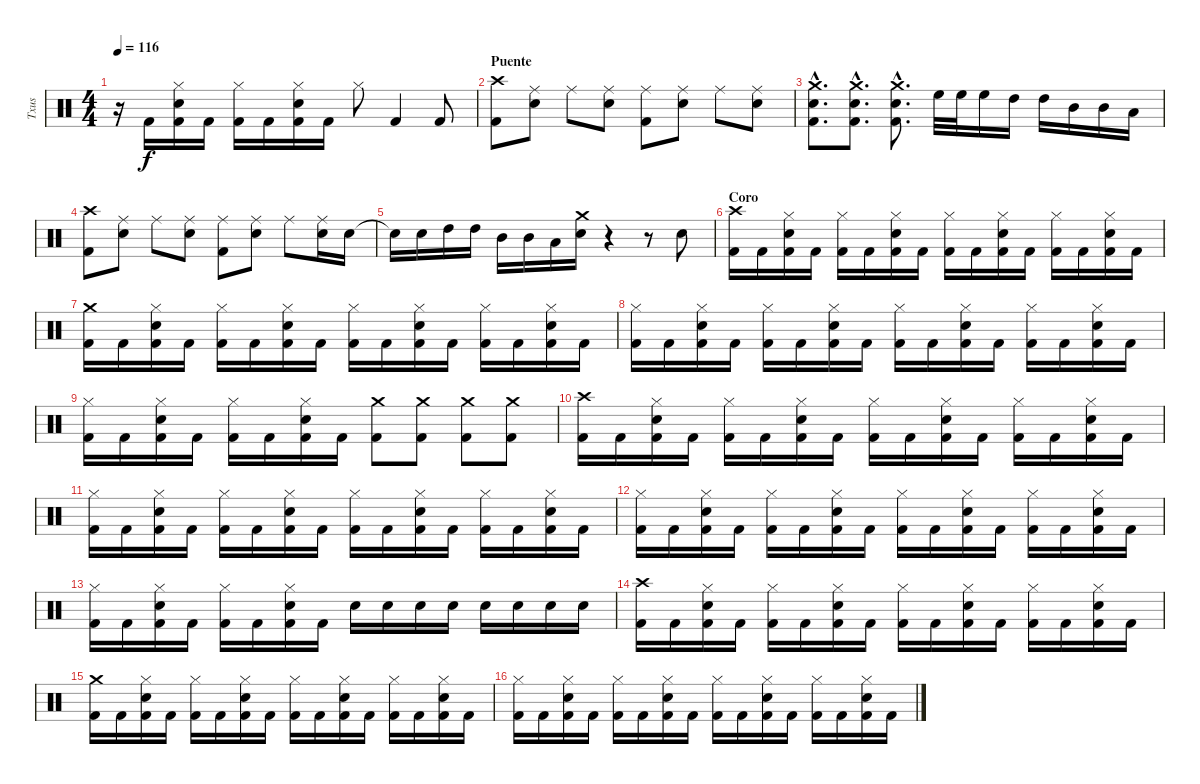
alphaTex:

\track ("Txus" "Txus") {instrument percussion}
\staff {score}
\articulation defaults
\ts (4 4)
\tempo 116
\clef neutral
\ks c
r.16{dy f} "Kick (hit) 2".16 ("Kick (hit) 2" "Electric Snare (hit)" "Hi-Hat (closed)").16 "Kick (hit) 2".16 ("Kick (hit) 2" "Hi-Hat (closed)").16 "Kick (hit) 2".16 ("Kick (hit) 2" "Electric Snare (hit)" "Hi-Hat (closed)").16 "Kick (hit) 2".16 "Hi-Hat (closed)".8 "Kick (hit) 2".4 "Kick (hit) 2".8 |
\section ("" "Puente")
("Kick (hit) 2" "Crash high (hit)").8 ("Electric Snare (hit)" "Ride (middle)").8 "Ride (middle)".8 ("Electric Snare (hit)" "Ride (middle)").8 ("Kick (hit) 2" "Ride (middle)").8 ("Electric Snare (hit)" "Ride (middle)").8 "Ride (middle)".8 ("Electric Snare (hit)" "Ride (middle)").8 |
("Kick (hit) 2"{hac} "Electric Snare (hit)"{hac} "Crash medium (hit)"{hac}).8{d} ("Kick (hit) 2"{hac} "Electric Snare (hit)"{hac} "Crash medium (hit)"{hac}).8{d} ("Kick (hit) 2"{hac} "Electric Snare (hit)"{hac} "Crash medium (hit)"{hac}).8{d} "High Floor Tom (hit)".32 "High Floor Tom (hit)".32 "High Floor Tom (hit)".16 "High Tom (hit)".16 "High Tom (hit)".16 "Mid Tom (hit)".16 "Mid Tom (hit)".16 "Low Tom (hit)".16 |
("Kick (hit) 2" "Crash high (hit)").8 ("Electric Snare (hit)" "Ride (middle)").8 "Ride (middle)".8 ("Electric Snare (hit)" "Ride (middle)").8 ("Kick (hit) 2" "Ride (middle)").8 ("Electric Snare (hit)" "Ride (middle)").8 "Ride (middle)".8 ("Electric Snare (hit)" "Ride (middle)").16 "Electric Snare (hit)".16 |
"Electric Snare (hit)"{t}.16 "Electric Snare (hit)".16 "High Tom (hit)".16 "High Tom (hit)".16 "Mid Tom (hit)".16 "Mid Tom (hit)".16 "Low Tom (hit)".16 ("Electric Snare (hit)" "Crash medium (hit)").16 r.4 r.8 "Electric Snare (hit)".8 |
\section ("" "Coro")
("Kick (hit) 2" "Crash high (hit)").16 "Kick (hit) 2".16 ("Kick (hit) 2" "Electric Snare (hit)" "Hi-Hat (closed)").16 "Kick (hit) 2".16 ("Kick (hit) 2" "Hi-Hat (closed)").16 "Kick (hit) 2".16 ("Kick (hit) 2" "Electric Snare (hit)" "Hi-Hat (closed)").16 "Kick (hit) 2".16 ("Kick (hit) 2" "Hi-Hat (closed)").16 "Kick (hit) 2".16 ("Kick (hit) 2" "Electric Snare (hit)" "Hi-Hat (closed)").16 "Kick (hit) 2".16 ("Kick (hit) 2" "Hi-Hat (closed)").16 "Kick (hit) 2".16 ("Kick (hit) 2" "Electric Snare (hit)" "Hi-Hat (closed)").16 "Kick (hit) 2".16 |
("Kick (hit) 2" "Crash medium (hit)").16 "Kick (hit) 2".16 ("Kick (hit) 2" "Electric Snare (hit)" "Hi-Hat (closed)").16 "Kick (hit) 2".16 ("Kick (hit) 2" "Hi-Hat (closed)").16 "Kick (hit) 2".16 ("Kick (hit) 2" "Electric Snare (hit)" "Hi-Hat (closed)").16 "Kick (hit) 2".16 ("Kick (hit) 2" "Hi-Hat (closed)").16 "Kick (hit) 2".16 ("Kick (hit) 2" "Electric Snare (hit)" "Hi-Hat (closed)").16 "Kick (hit) 2".16 ("Kick (hit) 2" "Hi-Hat (closed)").16 "Kick (hit) 2".16 ("Kick (hit) 2" "Electric Snare (hit)" "Hi-Hat (closed)").16 "Kick (hit) 2".16 |
("Kick (hit) 2" "Hi-Hat (closed)").16 "Kick (hit) 2".16 ("Kick (hit) 2" "Electric Snare (hit)" "Hi-Hat (closed)").16 "Kick (hit) 2".16 ("Kick (hit) 2" "Hi-Hat (closed)").16 "Kick (hit) 2".16 ("Kick (hit) 2" "Electric Snare (hit)" "Hi-Hat (closed)").16 "Kick (hit) 2".16 ("Kick (hit) 2" "Hi-Hat (closed)").16 "Kick (hit) 2".16 ("Kick (hit) 2" "Electric Snare (hit)" "Hi-Hat (closed)").16 "Kick (hit) 2".16 ("Kick (hit) 2" "Hi-Hat (closed)").16 "Kick (hit) 2".16 ("Kick (hit) 2" "Electric Snare (hit)" "Hi-Hat (closed)").16 "Kick (hit) 2".16 |
("Kick (hit) 2" "Hi-Hat (closed)").16 "Kick (hit) 2".16 ("Kick (hit) 2" "Electric Snare (hit)" "Hi-Hat (closed)").16 "Kick (hit) 2".16 ("Kick (hit) 2" "Hi-Hat (closed)").16 "Kick (hit) 2".16 ("Kick (hit) 2" "Electric Snare (hit)" "Hi-Hat (closed)").16 "Kick (hit) 2".16 ("Kick (hit) 2" "Crash medium (hit)").8 ("Kick (hit) 2" "Crash medium (hit)").8 ("Kick (hit) 2" "Crash medium (hit)").8 ("Kick (hit) 2" "Crash medium (hit)").8 |
("Kick (hit) 2" "Crash high (hit)").16 "Kick (hit) 2".16 ("Kick (hit) 2" "Electric Snare (hit)" "Hi-Hat (closed)").16 "Kick (hit) 2".16 ("Kick (hit) 2" "Hi-Hat (closed)").16 "Kick (hit) 2".16 ("Kick (hit) 2" "Electric Snare (hit)" "Hi-Hat (closed)").16 "Kick (hit) 2".16 ("Kick (hit) 2" "Hi-Hat (closed)").16 "Kick (hit) 2".16 ("Kick (hit) 2" "Electric Snare (hit)" "Hi-Hat (closed)").16 "Kick (hit) 2".16 ("Kick (hit) 2" "Hi-Hat (closed)").16 "Kick (hit) 2".16 ("Kick (hit) 2" "Electric Snare (hit)" "Hi-Hat (closed)").16 "Kick (hit) 2".16 |
("Kick (hit) 2" "Hi-Hat (closed)").16 "Kick (hit) 2".16 ("Kick (hit) 2" "Electric Snare (hit)" "Hi-Hat (closed)").16 "Kick (hit) 2".16 ("Kick (hit) 2" "Hi-Hat (closed)").16 "Kick (hit) 2".16 ("Kick (hit) 2" "Electric Snare (hit)" "Hi-Hat (closed)").16 "Kick (hit) 2".16 ("Kick (hit) 2" "Hi-Hat (closed)").16 "Kick (hit) 2".16 ("Kick (hit) 2" "Electric Snare (hit)" "Hi-Hat (closed)").16 "Kick (hit) 2".16 ("Kick (hit) 2" "Hi-Hat (closed)").16 "Kick (hit) 2".16 ("Kick (hit) 2" "Electric Snare (hit)" "Hi-Hat (closed)").16 "Kick (hit) 2".16 |
("Kick (hit) 2" "Hi-Hat (closed)").16 "Kick (hit) 2".16 ("Kick (hit) 2" "Electric Snare (hit)" "Hi-Hat (closed)").16 "Kick (hit) 2".16 ("Kick (hit) 2" "Hi-Hat (closed)").16 "Kick (hit) 2".16 ("Kick (hit) 2" "Electric Snare (hit)" "Hi-Hat (closed)").16 "Kick (hit) 2".16 ("Kick (hit) 2" "Hi-Hat (closed)").16 "Kick (hit) 2".16 ("Kick (hit) 2" "Electric Snare (hit)" "Hi-Hat (closed)").16 "Kick (hit) 2".16 ("Kick (hit) 2" "Hi-Hat (closed)").16 "Kick (hit) 2".16 ("Kick (hit) 2" "Electric Snare (hit)" "Hi-Hat (closed)").16 "Kick (hit) 2".16 |
("Kick (hit) 2" "Hi-Hat (closed)").16 "Kick (hit) 2".16 ("Kick (hit) 2" "Electric Snare (hit)" "Hi-Hat (closed)").16 "Kick (hit) 2".16 ("Kick (hit) 2" "Hi-Hat (closed)").16 "Kick (hit) 2".16 ("Kick (hit) 2" "Electric Snare (hit)" "Hi-Hat (closed)").16 "Kick (hit) 2".16 "Electric Snare (hit)".16 "Electric Snare (hit)".16 "Electric Snare (hit)".16 "Electric Snare (hit)".16 "Electric Snare (hit)".16 "Electric Snare (hit)".16 "Electric Snare (hit)".16 "Electric Snare (hit)".16 |
("Kick (hit) 2" "Crash high (hit)").16 "Kick (hit) 2".16 ("Kick (hit) 2" "Electric Snare (hit)" "Hi-Hat (closed)").16 "Kick (hit) 2".16 ("Kick (hit) 2" "Hi-Hat (closed)").16 "Kick (hit) 2".16 ("Kick (hit) 2" "Electric Snare (hit)" "Hi-Hat (closed)").16 "Kick (hit) 2".16 ("Kick (hit) 2" "Hi-Hat (closed)").16 "Kick (hit) 2".16 ("Kick (hit) 2" "Electric Snare (hit)" "Hi-Hat (closed)").16 "Kick (hit) 2".16 ("Kick (hit) 2" "Hi-Hat (closed)").16 "Kick (hit) 2".16 ("Kick (hit) 2" "Electric Snare (hit)" "Hi-Hat (closed)").16 "Kick (hit) 2".16 |
("Kick (hit) 2" "Crash medium (hit)").16 "Kick (hit) 2".16 ("Kick (hit) 2" "Electric Snare (hit)" "Hi-Hat (closed)").16 "Kick (hit) 2".16 ("Kick (hit) 2" "Hi-Hat (closed)").16 "Kick (hit) 2".16 ("Kick (hit) 2" "Electric Snare (hit)" "Hi-Hat (closed)").16 "Kick (hit) 2".16 ("Kick (hit) 2" "Hi-Hat (closed)").16 "Kick (hit) 2".16 ("Kick (hit) 2" "Electric Snare (hit)" "Hi-Hat (closed)").16 "Kick (hit) 2".16 ("Kick (hit) 2" "Hi-Hat (closed)").16 "Kick (hit) 2".16 ("Kick (hit) 2" "Electric Snare (hit)" "Hi-Hat (closed)").16 "Kick (hit) 2".16 |
("Kick (hit) 2" "Hi-Hat (closed)").16 "Kick (hit) 2".16 ("Kick (hit) 2" "Electric Snare (hit)" "Hi-Hat (closed)").16 "Kick (hit) 2".16 ("Kick (hit) 2" "Hi-Hat (closed)").16 "Kick (hit) 2".16 ("Kick (hit) 2" "Electric Snare (hit)" "Hi-Hat (closed)").16 "Kick (hit) 2".16 ("Kick (hit) 2" "Hi-Hat (closed)").16 "Kick (hit) 2".16 ("Kick (hit) 2" "Electric Snare (hit)" "Hi-Hat (closed)").16 "Kick (hit) 2".16 ("Kick (hit) 2" "Hi-Hat (closed)").16 "Kick (hit) 2".16 ("Kick (hit) 2" "Electric Snare (hit)" "Hi-Hat (closed)").16 "Kick (hit) 2".16
